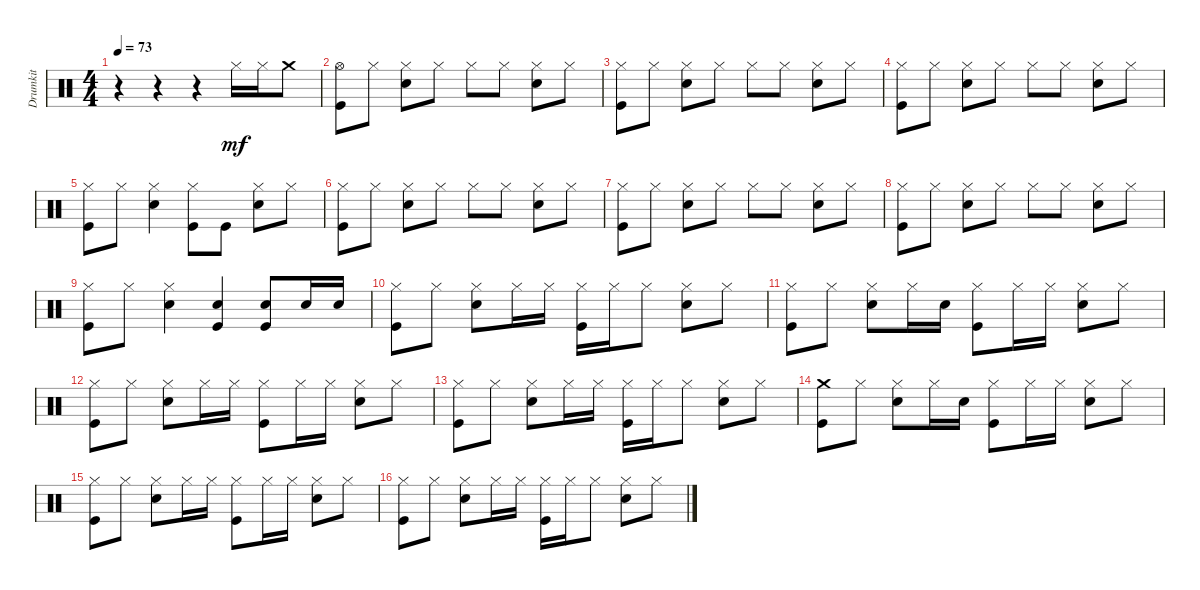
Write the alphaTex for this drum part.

\track ("Drumkit" "Drumkit") {instrument percussion}
\staff {score}
\articulation defaults
\ts (4 4)
\tempo 73
\clef neutral
\ks c
r.4{dy f} r.4 r.4 "Hi-Hat (closed)".16{dy mf} "Hi-Hat (closed)".16 "Crash medium (hit)".8 |
("Kick (hit)" "Hi-Hat (open)").8 "Hi-Hat (closed)".8 ("Snare (hit) 2" "Hi-Hat (closed)").8 "Hi-Hat (closed)".8 "Hi-Hat (closed)".8 "Hi-Hat (closed)".8 ("Hi-Hat (closed)" "Snare (hit) 2").8 "Hi-Hat (closed)".8 |
("Kick (hit)" "Hi-Hat (closed)").8 "Hi-Hat (closed)".8 ("Snare (hit) 2" "Hi-Hat (closed)").8 "Hi-Hat (closed)".8 "Hi-Hat (closed)".8 "Hi-Hat (closed)".8 ("Hi-Hat (closed)" "Snare (hit) 2").8 "Hi-Hat (closed)".8 |
("Kick (hit)" "Hi-Hat (closed)").8 "Hi-Hat (closed)".8 ("Snare (hit) 2" "Hi-Hat (closed)").8 "Hi-Hat (closed)".8 "Hi-Hat (closed)".8 "Hi-Hat (closed)".8 ("Hi-Hat (closed)" "Snare (hit) 2").8 "Hi-Hat (closed)".8 |
("Kick (hit)" "Hi-Hat (closed)").8 "Hi-Hat (closed)".8 ("Snare (hit) 2" "Hi-Hat (closed)").4 ("Hi-Hat (closed)" "Kick (hit)").8 "Kick (hit)".8 ("Hi-Hat (closed)" "Snare (hit) 2").8 "Hi-Hat (closed)".8 |
("Kick (hit)" "Hi-Hat (closed)").8 "Hi-Hat (closed)".8 ("Snare (hit) 2" "Hi-Hat (closed)").8 "Hi-Hat (closed)".8 "Hi-Hat (closed)".8 "Hi-Hat (closed)".8 ("Hi-Hat (closed)" "Snare (hit) 2").8 "Hi-Hat (closed)".8 |
("Kick (hit)" "Hi-Hat (closed)").8 "Hi-Hat (closed)".8 ("Snare (hit) 2" "Hi-Hat (closed)").8 "Hi-Hat (closed)".8 "Hi-Hat (closed)".8 "Hi-Hat (closed)".8 ("Hi-Hat (closed)" "Snare (hit) 2").8 "Hi-Hat (closed)".8 |
("Kick (hit)" "Hi-Hat (closed)").8 "Hi-Hat (closed)".8 ("Snare (hit) 2" "Hi-Hat (closed)").8 "Hi-Hat (closed)".8 "Hi-Hat (closed)".8 "Hi-Hat (closed)".8 ("Hi-Hat (closed)" "Snare (hit) 2").8 "Hi-Hat (closed)".8 |
("Kick (hit)" "Hi-Hat (closed)").8 "Hi-Hat (closed)".8 ("Snare (hit) 2" "Hi-Hat (closed)").4 ("Kick (hit)" "Snare (hit) 2").4 ("Snare (hit) 2" "Kick (hit)").8 "Snare (hit) 2".16 "Snare (hit) 2".16 |
("Hi-Hat (closed)" "Kick (hit)").8 "Hi-Hat (closed)".8 ("Snare (hit) 2" "Hi-Hat (closed)").8 "Hi-Hat (closed)".16 "Hi-Hat (closed)".16 ("Kick (hit)" "Hi-Hat (closed)").16 "Hi-Hat (closed)".16 "Hi-Hat (closed)".8 ("Hi-Hat (closed)" "Snare (hit) 2").8 "Hi-Hat (closed)".8 |
("Hi-Hat (closed)" "Kick (hit)").8 "Hi-Hat (closed)".8 ("Snare (hit) 2" "Hi-Hat (closed)").8 "Hi-Hat (closed)".16 "Snare (hit) 2".16 ("Kick (hit)" "Hi-Hat (closed)").8 "Hi-Hat (closed)".16 "Hi-Hat (closed)".16 ("Hi-Hat (closed)" "Snare (hit) 2").8 "Hi-Hat (closed)".8 |
("Hi-Hat (closed)" "Kick (hit)").8 "Hi-Hat (closed)".8 ("Snare (hit) 2" "Hi-Hat (closed)").8 "Hi-Hat (closed)".16 "Hi-Hat (closed)".16 ("Kick (hit)" "Hi-Hat (closed)").8 "Hi-Hat (closed)".16 "Hi-Hat (closed)".16 ("Hi-Hat (closed)" "Snare (hit) 2").8 "Hi-Hat (closed)".8 |
("Hi-Hat (closed)" "Kick (hit)").8 "Hi-Hat (closed)".8 ("Snare (hit) 2" "Hi-Hat (closed)").8 "Hi-Hat (closed)".16 "Hi-Hat (closed)".16 ("Kick (hit)" "Hi-Hat (closed)").16 "Hi-Hat (closed)".16 "Hi-Hat (closed)".8 ("Hi-Hat (closed)" "Snare (hit) 2").8 "Hi-Hat (closed)".8 |
("Kick (hit)" "Crash medium (hit)").8 "Hi-Hat (closed)".8 ("Snare (hit) 2" "Hi-Hat (closed)").8 "Hi-Hat (closed)".16 "Snare (hit) 2".16 ("Kick (hit)" "Hi-Hat (closed)").8 "Hi-Hat (closed)".16 "Hi-Hat (closed)".16 ("Hi-Hat (closed)" "Snare (hit) 2").8 "Hi-Hat (closed)".8 |
("Hi-Hat (closed)" "Kick (hit)").8 "Hi-Hat (closed)".8 ("Snare (hit) 2" "Hi-Hat (closed)").8 "Hi-Hat (closed)".16 "Hi-Hat (closed)".16 ("Kick (hit)" "Hi-Hat (closed)").8 "Hi-Hat (closed)".16 "Hi-Hat (closed)".16 ("Hi-Hat (closed)" "Snare (hit) 2").8 "Hi-Hat (closed)".8 |
("Hi-Hat (closed)" "Kick (hit)").8 "Hi-Hat (closed)".8 ("Snare (hit) 2" "Hi-Hat (closed)").8 "Hi-Hat (closed)".16 "Hi-Hat (closed)".16 ("Kick (hit)" "Hi-Hat (closed)").16 "Hi-Hat (closed)".16 "Hi-Hat (closed)".8 ("Hi-Hat (closed)" "Snare (hit) 2").8 "Hi-Hat (closed)".8
